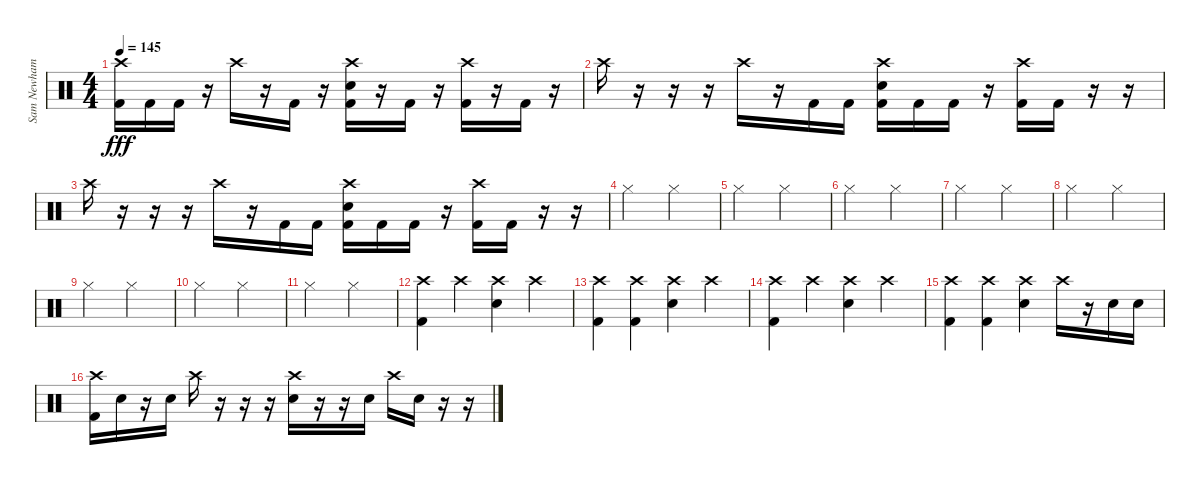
\track ("Sam Newham" "Sam Newham") {instrument percussion}
\staff {score}
\articulation defaults
\ts (4 4)
\tempo 145
\clef neutral
\ks c
("Crash high (hit)" "Kick (hit) 2").16{dy fff} "Kick (hit) 2".16 "Kick (hit) 2".16 r.16 "Crash high (hit)".16 r.16 "Kick (hit) 2".16 r.16 ("Crash high (hit)" "Electric Snare (hit)" "Kick (hit) 2").16 r.16 "Kick (hit) 2".16 r.16 ("Crash high (hit)" "Kick (hit) 2").16 r.16 "Kick (hit) 2".16 r.16 |
"Crash high (hit)".16 r.16 r.16 r.16 "Crash high (hit)".16 r.16 "Kick (hit) 2".16 "Kick (hit) 2".16 ("Crash high (hit)" "Electric Snare (hit)" "Kick (hit) 2").16 "Kick (hit) 2".16 "Kick (hit) 2".16 r.16 ("Crash high (hit)" "Kick (hit) 2").16 "Kick (hit) 2".16 r.16 r.16 |
"Crash high (hit)".16 r.16 r.16 r.16 "Crash high (hit)".16 r.16 "Kick (hit) 2".16 "Kick (hit) 2".16 ("Crash high (hit)" "Electric Snare (hit)" "Kick (hit) 2").16 "Kick (hit) 2".16 "Kick (hit) 2".16 r.16 ("Crash high (hit)" "Kick (hit) 2").16 "Kick (hit) 2".16 r.16 r.16 |
"Hi-Hat (closed)".2 "Hi-Hat (closed)".2 |
"Hi-Hat (closed)".2 "Hi-Hat (closed)".2 |
"Hi-Hat (closed)".2 "Hi-Hat (closed)".2 |
"Hi-Hat (closed)".2 "Hi-Hat (closed)".2 |
"Hi-Hat (closed)".2 "Hi-Hat (closed)".2 |
"Hi-Hat (closed)".2 "Hi-Hat (closed)".2 |
"Hi-Hat (closed)".2 "Hi-Hat (closed)".2 |
"Hi-Hat (closed)".2 "Hi-Hat (closed)".2 |
("Crash high (hit)" "Kick (hit) 2").4 "Crash high (hit)".4 ("Crash high (hit)" "Electric Snare (hit)").4 "Crash high (hit)".4 |
("Crash high (hit)" "Kick (hit) 2").4 ("Crash high (hit)" "Kick (hit) 2").4 ("Crash high (hit)" "Electric Snare (hit)").4 "Crash high (hit)".4 |
("Crash high (hit)" "Kick (hit) 2").4 "Crash high (hit)".4 ("Crash high (hit)" "Electric Snare (hit)").4 "Crash high (hit)".4 |
("Crash high (hit)" "Kick (hit) 2").4 ("Crash high (hit)" "Kick (hit) 2").4 ("Crash high (hit)" "Electric Snare (hit)").4 "Crash high (hit)".16 r.16 "Electric Snare (hit)".16 "Electric Snare (hit)".16 |
("Crash high (hit)" "Kick (hit) 2").16 "Electric Snare (hit)".16 r.16 "Electric Snare (hit)".16 "Crash high (hit)".16 r.16 r.16 r.16 ("Crash high (hit)" "Electric Snare (hit)").16 r.16 r.16 "Electric Snare (hit)".16 "Crash high (hit)".16 "Electric Snare (hit)".16 r.16 r.16
